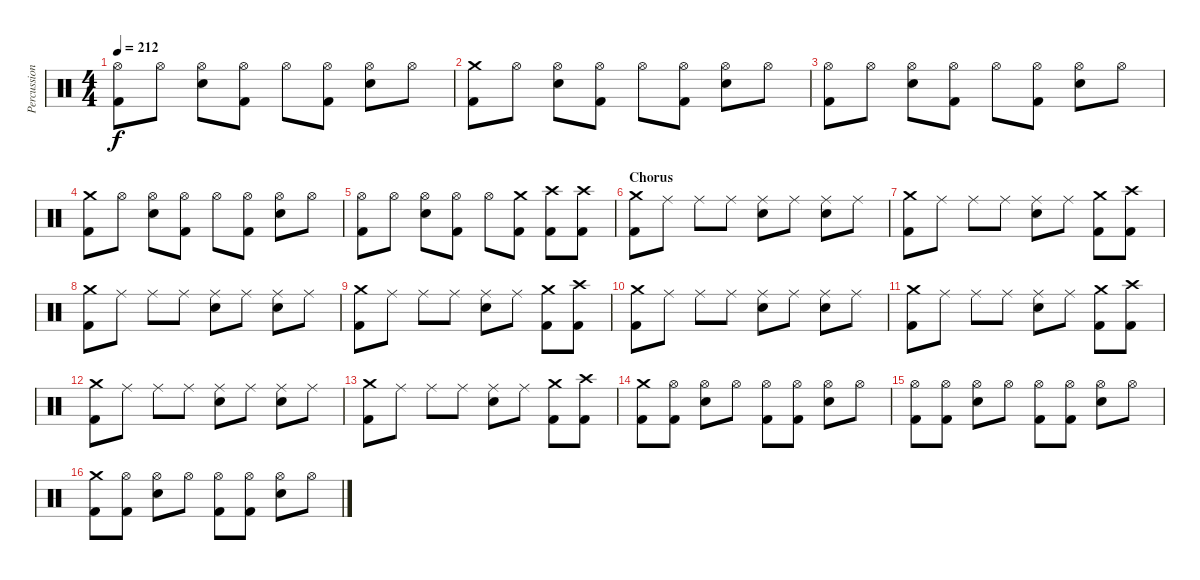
\track ("Percussion" "Percussion") {instrument percussion}
\staff {score}
\articulation defaults
\ts (4 4)
\tempo 212
\clef neutral
\ks c
("Kick (hit) 2" "Hi-Hat (open)").8{dy f} "Hi-Hat (open)".8 ("Snare (hit) 2" "Hi-Hat (open)").8 ("Kick (hit) 2" "Hi-Hat (open)").8 "Hi-Hat (open)".8 ("Kick (hit) 2" "Hi-Hat (open)").8 ("Snare (hit) 2" "Hi-Hat (open)").8 "Hi-Hat (open)".8 |
("Kick (hit) 2" "Crash medium (hit)").8 "Hi-Hat (open)".8 ("Snare (hit) 2" "Hi-Hat (open)").8 ("Kick (hit) 2" "Hi-Hat (open)").8 "Hi-Hat (open)".8 ("Kick (hit) 2" "Hi-Hat (open)").8 ("Snare (hit) 2" "Hi-Hat (open)").8 "Hi-Hat (open)".8 |
("Kick (hit) 2" "Hi-Hat (open)").8 "Hi-Hat (open)".8 ("Snare (hit) 2" "Hi-Hat (open)").8 ("Kick (hit) 2" "Hi-Hat (open)").8 "Hi-Hat (open)".8 ("Kick (hit) 2" "Hi-Hat (open)").8 ("Snare (hit) 2" "Hi-Hat (open)").8 "Hi-Hat (open)".8 |
("Kick (hit) 2" "Crash medium (hit)").8 "Hi-Hat (open)".8 ("Snare (hit) 2" "Hi-Hat (open)").8 ("Kick (hit) 2" "Hi-Hat (open)").8 "Hi-Hat (open)".8 ("Kick (hit) 2" "Hi-Hat (open)").8 ("Snare (hit) 2" "Hi-Hat (open)").8 "Hi-Hat (open)".8 |
("Kick (hit) 2" "Hi-Hat (open)").8 "Hi-Hat (open)".8 ("Snare (hit) 2" "Hi-Hat (open)").8 ("Kick (hit) 2" "Hi-Hat (open)").8 "Hi-Hat (open)".8 ("Kick (hit) 2" "Crash medium (hit)").8 ("Crash high (hit)" "Kick (hit) 2").8 ("Crash high (hit)" "Kick (hit) 2").8 |
\section ("" "Chorus")
("Kick (hit) 2" "Crash medium (hit)").8 "Ride (middle)".8 "Ride (middle)".8 "Ride (middle)".8 ("Snare (hit) 2" "Ride (middle)").8 "Ride (middle)".8 ("Snare (hit) 2" "Ride (middle)").8 "Ride (middle)".8 |
("Kick (hit) 2" "Crash medium (hit)").8 "Ride (middle)".8 "Ride (middle)".8 "Ride (middle)".8 ("Snare (hit) 2" "Ride (middle)").8 "Ride (middle)".8 ("Kick (hit) 2" "Crash medium (hit)").8 ("Kick (hit) 2" "Crash high (hit)").8 |
("Kick (hit) 2" "Crash medium (hit)").8 "Ride (middle)".8 "Ride (middle)".8 "Ride (middle)".8 ("Snare (hit) 2" "Ride (middle)").8 "Ride (middle)".8 ("Snare (hit) 2" "Ride (middle)").8 "Ride (middle)".8 |
("Kick (hit) 2" "Crash medium (hit)").8 "Ride (middle)".8 "Ride (middle)".8 "Ride (middle)".8 ("Snare (hit) 2" "Ride (middle)").8 "Ride (middle)".8 ("Kick (hit) 2" "Crash medium (hit)").8 ("Kick (hit) 2" "Crash high (hit)").8 |
("Kick (hit) 2" "Crash medium (hit)").8 "Ride (middle)".8 "Ride (middle)".8 "Ride (middle)".8 ("Snare (hit) 2" "Ride (middle)").8 "Ride (middle)".8 ("Snare (hit) 2" "Ride (middle)").8 "Ride (middle)".8 |
("Kick (hit) 2" "Crash medium (hit)").8 "Ride (middle)".8 "Ride (middle)".8 "Ride (middle)".8 ("Snare (hit) 2" "Ride (middle)").8 "Ride (middle)".8 ("Kick (hit) 2" "Crash medium (hit)").8 ("Kick (hit) 2" "Crash high (hit)").8 |
("Kick (hit) 2" "Crash medium (hit)").8 "Ride (middle)".8 "Ride (middle)".8 "Ride (middle)".8 ("Snare (hit) 2" "Ride (middle)").8 "Ride (middle)".8 ("Snare (hit) 2" "Ride (middle)").8 "Ride (middle)".8 |
("Kick (hit) 2" "Crash medium (hit)").8 "Ride (middle)".8 "Ride (middle)".8 "Ride (middle)".8 ("Snare (hit) 2" "Ride (middle)").8 "Ride (middle)".8 ("Kick (hit) 2" "Crash medium (hit)").8 ("Kick (hit) 2" "Crash high (hit)").8 |
("Kick (hit) 2" "Crash medium (hit)").8 ("Kick (hit) 2" "Hi-Hat (open)").8 ("Snare (hit) 2" "Hi-Hat (open)").8 "Hi-Hat (open)".8 ("Kick (hit) 2" "Hi-Hat (open)").8 ("Kick (hit) 2" "Hi-Hat (open)").8 ("Snare (hit) 2" "Hi-Hat (open)").8 "Hi-Hat (open)".8 |
("Kick (hit) 2" "Hi-Hat (open)").8 ("Kick (hit) 2" "Hi-Hat (open)").8 ("Snare (hit) 2" "Hi-Hat (open)").8 "Hi-Hat (open)".8 ("Kick (hit) 2" "Hi-Hat (open)").8 ("Kick (hit) 2" "Hi-Hat (open)").8 ("Snare (hit) 2" "Hi-Hat (open)").8 "Hi-Hat (open)".8 |
("Kick (hit) 2" "Crash medium (hit)").8 ("Kick (hit) 2" "Hi-Hat (open)").8 ("Snare (hit) 2" "Hi-Hat (open)").8 "Hi-Hat (open)".8 ("Kick (hit) 2" "Hi-Hat (open)").8 ("Kick (hit) 2" "Hi-Hat (open)").8 ("Snare (hit) 2" "Hi-Hat (open)").8 "Hi-Hat (open)".8
